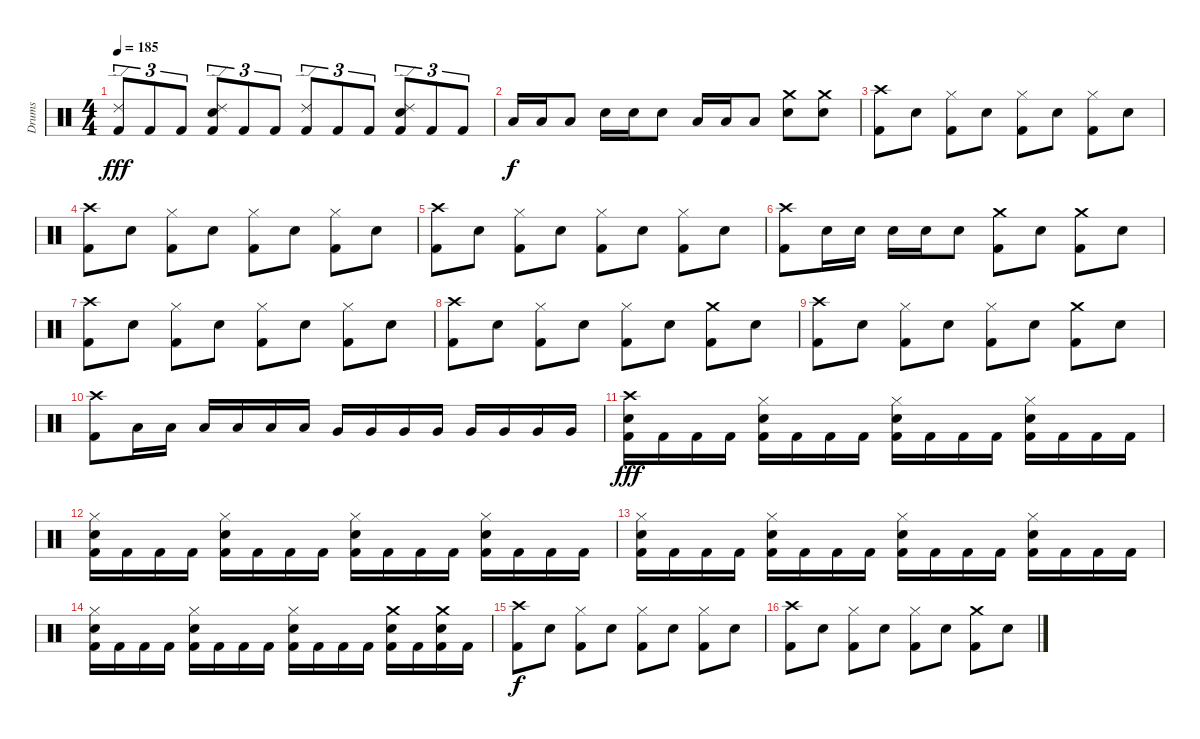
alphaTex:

\track ("Drums" "Drums") {instrument percussion}
\staff {score}
\articulation defaults
\ts (4 4)
\tempo 185
\clef neutral
\ks c
("Kick (hit) 2" "Ride (edge) 2").8{tu (3 2) dy fff} "Kick (hit) 2".8{tu (3 2)} "Kick (hit) 2".8{tu (3 2)} ("Kick (hit) 2" "Snare (hit) 2" "Ride (edge) 2").8{tu (3 2)} "Kick (hit) 2".8{tu (3 2)} "Kick (hit) 2".8{tu (3 2)} ("Kick (hit) 2" "Ride (edge) 2").8{tu (3 2)} "Kick (hit) 2".8{tu (3 2)} "Kick (hit) 2".8{tu (3 2)} ("Kick (hit) 2" "Snare (hit) 2" "Ride (edge) 2").8{tu (3 2)} "Kick (hit) 2".8{tu (3 2)} "Kick (hit) 2".8{tu (3 2)} |
"Low Tom (hit)".16{dy f} "Low Tom (hit)".16 "Low Tom (hit)".8 "Snare (hit) 2".16 "Snare (hit) 2".16 "Snare (hit) 2".8 "Low Tom (hit)".16 "Low Tom (hit)".16 "Low Tom (hit)".8 ("Snare (hit) 2" "Crash medium (hit)").8 ("Snare (hit) 2" "Crash medium (hit)").8 |
("Kick (hit) 2" "Crash high (hit)").8 "Snare (hit) 2".8 ("Kick (hit) 2" "Hi-Hat (closed)").8 "Snare (hit) 2".8 ("Kick (hit) 2" "Hi-Hat (closed)").8 "Snare (hit) 2".8 ("Kick (hit) 2" "Hi-Hat (closed)").8 "Snare (hit) 2".8 |
("Kick (hit) 2" "Crash high (hit)").8 "Snare (hit) 2".8 ("Kick (hit) 2" "Hi-Hat (closed)").8 "Snare (hit) 2".8 ("Kick (hit) 2" "Hi-Hat (closed)").8 "Snare (hit) 2".8 ("Kick (hit) 2" "Hi-Hat (closed)").8 "Snare (hit) 2".8 |
("Kick (hit) 2" "Crash high (hit)").8 "Snare (hit) 2".8 ("Kick (hit) 2" "Hi-Hat (closed)").8 "Snare (hit) 2".8 ("Kick (hit) 2" "Hi-Hat (closed)").8 "Snare (hit) 2".8 ("Kick (hit) 2" "Hi-Hat (closed)").8 "Snare (hit) 2".8 |
("Kick (hit) 2" "Crash high (hit)").8 "Snare (hit) 2".16 "Snare (hit) 2".16 "Snare (hit) 2".16 "Snare (hit) 2".16 "Snare (hit) 2".8 ("Kick (hit) 2" "Crash medium (hit)").8 "Snare (hit) 2".8 ("Kick (hit) 2" "Crash medium (hit)").8 "Snare (hit) 2".8 |
("Kick (hit) 2" "Crash high (hit)").8 "Snare (hit) 2".8 ("Kick (hit) 2" "Hi-Hat (closed)").8 "Snare (hit) 2".8 ("Kick (hit) 2" "Hi-Hat (closed)").8 "Snare (hit) 2".8 ("Kick (hit) 2" "Hi-Hat (closed)").8 "Snare (hit) 2".8 |
("Kick (hit) 2" "Crash high (hit)").8 "Snare (hit) 2".8 ("Kick (hit) 2" "Hi-Hat (closed)").8 "Snare (hit) 2".8 ("Kick (hit) 2" "Hi-Hat (closed)").8 "Snare (hit) 2".8 ("Kick (hit) 2" "Crash medium (hit)").8 "Snare (hit) 2".8 |
("Kick (hit) 2" "Crash high (hit)").8 "Snare (hit) 2".8 ("Kick (hit) 2" "Hi-Hat (closed)").8 "Snare (hit) 2".8 ("Kick (hit) 2" "Hi-Hat (closed)").8 "Snare (hit) 2".8 ("Kick (hit) 2" "Crash medium (hit)").8 "Snare (hit) 2".8 |
("Kick (hit) 2" "Crash high (hit)").8 "Low Tom (hit)".16 "Low Tom (hit)".16 "Low Tom (hit)".16 "Low Tom (hit)".16 "Low Tom (hit)".16 "Low Tom (hit)".16 "Very Low Tom (hit)".16 "Very Low Tom (hit)".16 "Very Low Tom (hit)".16 "Very Low Tom (hit)".16 "Very Low Tom (hit)".16 "Very Low Tom (hit)".16 "Very Low Tom (hit)".16 "Very Low Tom (hit)".16 |
("Kick (hit) 2" "Snare (hit) 2" "Crash high (hit)").16{dy fff} "Kick (hit) 2".16 "Kick (hit) 2".16 "Kick (hit) 2".16 ("Kick (hit) 2" "Snare (hit) 2" "Hi-Hat (closed)").16 "Kick (hit) 2".16 "Kick (hit) 2".16 "Kick (hit) 2".16 ("Kick (hit) 2" "Snare (hit) 2" "Hi-Hat (closed)").16 "Kick (hit) 2".16 "Kick (hit) 2".16 "Kick (hit) 2".16 ("Kick (hit) 2" "Snare (hit) 2" "Hi-Hat (closed)").16 "Kick (hit) 2".16 "Kick (hit) 2".16 "Kick (hit) 2".16 |
("Kick (hit) 2" "Snare (hit) 2" "Hi-Hat (closed)").16 "Kick (hit) 2".16 "Kick (hit) 2".16 "Kick (hit) 2".16 ("Kick (hit) 2" "Snare (hit) 2" "Hi-Hat (closed)").16 "Kick (hit) 2".16 "Kick (hit) 2".16 "Kick (hit) 2".16 ("Kick (hit) 2" "Snare (hit) 2" "Hi-Hat (closed)").16 "Kick (hit) 2".16 "Kick (hit) 2".16 "Kick (hit) 2".16 ("Kick (hit) 2" "Snare (hit) 2" "Hi-Hat (closed)").16 "Kick (hit) 2".16 "Kick (hit) 2".16 "Kick (hit) 2".16 |
("Kick (hit) 2" "Snare (hit) 2" "Hi-Hat (closed)").16 "Kick (hit) 2".16 "Kick (hit) 2".16 "Kick (hit) 2".16 ("Kick (hit) 2" "Snare (hit) 2" "Hi-Hat (closed)").16 "Kick (hit) 2".16 "Kick (hit) 2".16 "Kick (hit) 2".16 ("Kick (hit) 2" "Snare (hit) 2" "Hi-Hat (closed)").16 "Kick (hit) 2".16 "Kick (hit) 2".16 "Kick (hit) 2".16 ("Kick (hit) 2" "Snare (hit) 2" "Hi-Hat (closed)").16 "Kick (hit) 2".16 "Kick (hit) 2".16 "Kick (hit) 2".16 |
("Kick (hit) 2" "Snare (hit) 2" "Hi-Hat (closed)").16 "Kick (hit) 2".16 "Kick (hit) 2".16 "Kick (hit) 2".16 ("Kick (hit) 2" "Snare (hit) 2" "Hi-Hat (closed)").16 "Kick (hit) 2".16 "Kick (hit) 2".16 "Kick (hit) 2".16 ("Kick (hit) 2" "Snare (hit) 2" "Hi-Hat (closed)").16 "Kick (hit) 2".16 "Kick (hit) 2".16 "Kick (hit) 2".16 ("Kick (hit) 2" "Snare (hit) 2" "Crash medium (hit)").16 "Kick (hit) 2".16 ("Kick (hit) 2" "Snare (hit) 2" "Crash medium (hit)").16 "Kick (hit) 2".16 |
("Kick (hit) 2" "Crash high (hit)").8{dy f} "Snare (hit) 2".8 ("Kick (hit) 2" "Hi-Hat (closed)").8 "Snare (hit) 2".8 ("Kick (hit) 2" "Hi-Hat (closed)").8 "Snare (hit) 2".8 ("Kick (hit) 2" "Hi-Hat (closed)").8 "Snare (hit) 2".8 |
("Kick (hit) 2" "Crash high (hit)").8 "Snare (hit) 2".8 ("Kick (hit) 2" "Hi-Hat (closed)").8 "Snare (hit) 2".8 ("Kick (hit) 2" "Hi-Hat (closed)").8 "Snare (hit) 2".8 ("Kick (hit) 2" "Crash medium (hit)").8 "Snare (hit) 2".8
